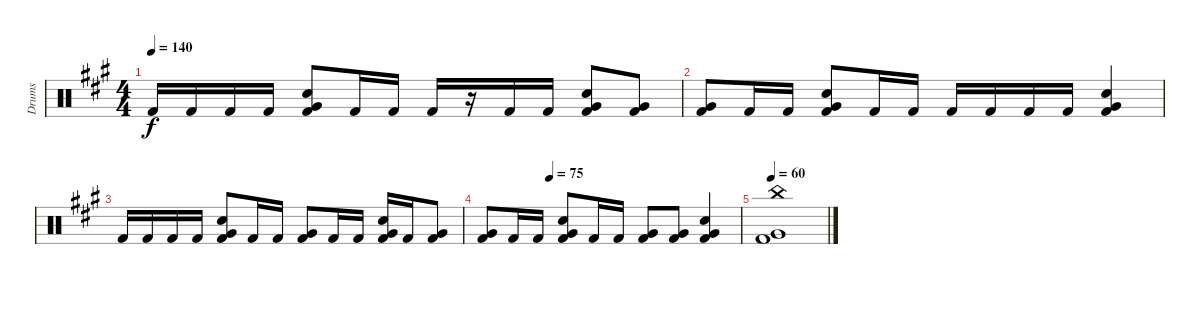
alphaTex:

\track ("Drums" "Drums") {instrument percussion}
\staff {score}
\articulation defaults
\ts (4 4)
\tempo 140
\clef neutral
\ks f#minor "Kick (hit) 2".16{dy f} "Kick (hit) 2".16 "Kick (hit) 2".16 "Kick (hit) 2".16
("Kick (hit) 2" "Very Low Tom (hit)" "Snare (hit) 2").8 "Kick (hit) 2".16 "Kick (hit) 2".16 "Kick (hit) 2".16 r.16 "Kick (hit) 2".16 "Kick (hit) 2".16 ("Kick (hit) 2" "Very Low Tom (hit)" "Snare (hit) 2").8 ("Kick (hit) 2" "Very Low Tom (hit)").8 |
("Kick (hit) 2" "Very Low Tom (hit)").8 "Kick (hit) 2".16 "Kick (hit) 2".16 ("Kick (hit) 2" "Very Low Tom (hit)" "Snare (hit) 2").8 "Kick (hit) 2".16 "Kick (hit) 2".16 "Kick (hit) 2".16 "Kick (hit) 2".16 "Kick (hit) 2".16 "Kick (hit) 2".16 ("Kick (hit) 2" "Very Low Tom (hit)" "Snare (hit) 2").4 |
"Kick (hit) 2".16 "Kick (hit) 2".16 "Kick (hit) 2".16 "Kick (hit) 2".16 ("Kick (hit) 2" "Very Low Tom (hit)" "Snare (hit) 2").8 "Kick (hit) 2".16 "Kick (hit) 2".16 ("Kick (hit) 2" "Very Low Tom (hit)").8 "Kick (hit) 2".16 "Kick (hit) 2".16 ("Kick (hit) 2" "Very Low Tom (hit)" "Snare (hit) 2").16 "Kick (hit) 2".16 ("Kick (hit) 2" "Very Low Tom (hit)").8 |
\tempo (75 0.25)
("Kick (hit) 2" "Very Low Tom (hit)").8 "Kick (hit) 2".16 "Kick (hit) 2".16 ("Kick (hit) 2" "Very Low Tom (hit)" "Snare (hit) 2").8 "Kick (hit) 2".16 "Kick (hit) 2".16 ("Kick (hit) 2" "Very Low Tom (hit)").8 ("Kick (hit) 2" "Very Low Tom (hit)").8 ("Kick (hit) 2" "Very Low Tom (hit)" "Snare (hit) 2").4 |
\tempo 60
("Kick (hit) 2" "Very Low Tom (hit)" "China (hit)").1
